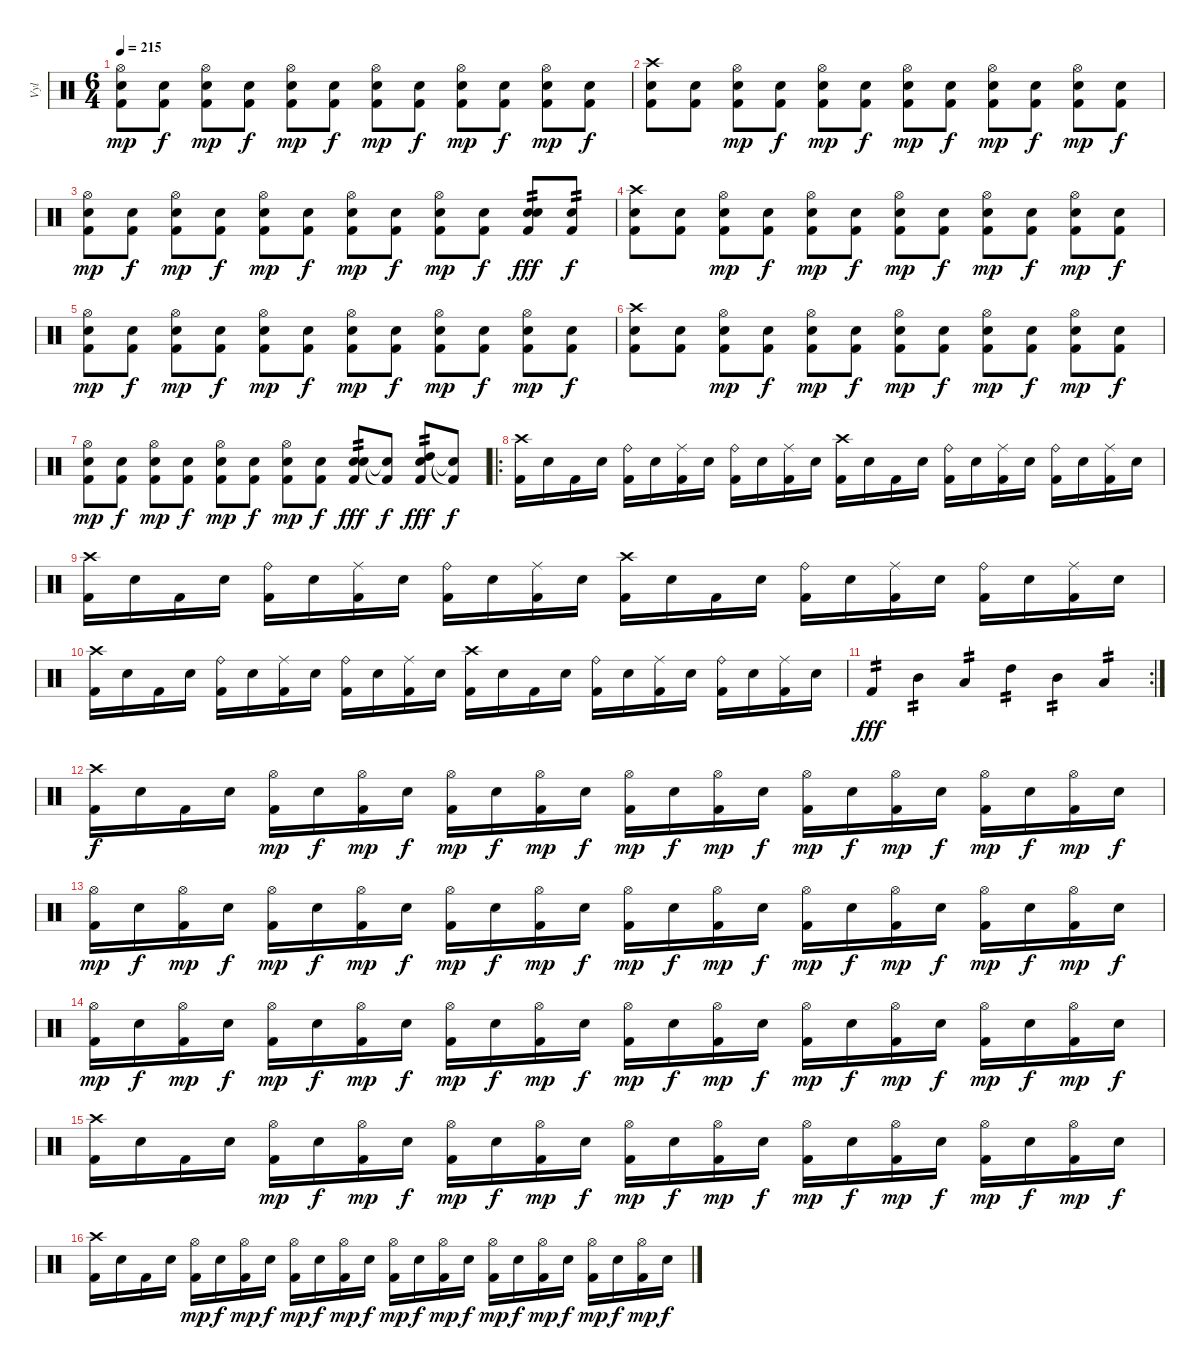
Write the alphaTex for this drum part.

\track ("Vyl" "Vyl") {instrument percussion}
\staff {score}
\articulation defaults
\ts (6 4)
\tempo 215
\clef neutral
\ks c
("Hi-Hat (open)" "Snare (hit) 2" "Kick (hit) 2").8{dy mp} ("Snare (hit) 2" "Kick (hit) 2").8{dy f} ("Hi-Hat (open)" "Snare (hit) 2" "Kick (hit) 2").8{dy mp} ("Snare (hit) 2" "Kick (hit) 2").8{dy f} ("Hi-Hat (open)" "Snare (hit) 2" "Kick (hit) 2").8{dy mp} ("Snare (hit) 2" "Kick (hit) 2").8{dy f} ("Hi-Hat (open)" "Snare (hit) 2" "Kick (hit) 2").8{dy mp} ("Snare (hit) 2" "Kick (hit) 2").8{dy f} ("Hi-Hat (open)" "Snare (hit) 2" "Kick (hit) 2").8{dy mp} ("Snare (hit) 2" "Kick (hit) 2").8{dy f} ("Hi-Hat (open)" "Snare (hit) 2" "Kick (hit) 2").8{dy mp} ("Snare (hit) 2" "Kick (hit) 2").8{dy f} |
("Crash high (hit)" "Snare (hit) 2" "Kick (hit) 2").8 ("Snare (hit) 2" "Kick (hit) 2").8 ("Hi-Hat (open)" "Snare (hit) 2" "Kick (hit) 2").8{dy mp} ("Snare (hit) 2" "Kick (hit) 2").8{dy f} ("Hi-Hat (open)" "Snare (hit) 2" "Kick (hit) 2").8{dy mp} ("Snare (hit) 2" "Kick (hit) 2").8{dy f} ("Hi-Hat (open)" "Snare (hit) 2" "Kick (hit) 2").8{dy mp} ("Snare (hit) 2" "Kick (hit) 2").8{dy f} ("Hi-Hat (open)" "Snare (hit) 2" "Kick (hit) 2").8{dy mp} ("Snare (hit) 2" "Kick (hit) 2").8{dy f} ("Hi-Hat (open)" "Snare (hit) 2" "Kick (hit) 2").8{dy mp} ("Snare (hit) 2" "Kick (hit) 2").8{dy f} |
("Hi-Hat (open)" "Snare (hit) 2" "Kick (hit) 2").8{dy mp} ("Snare (hit) 2" "Kick (hit) 2").8{dy f} ("Hi-Hat (open)" "Snare (hit) 2" "Kick (hit) 2").8{dy mp} ("Snare (hit) 2" "Kick (hit) 2").8{dy f} ("Hi-Hat (open)" "Snare (hit) 2" "Kick (hit) 2").8{dy mp} ("Snare (hit) 2" "Kick (hit) 2").8{dy f} ("Hi-Hat (open)" "Snare (hit) 2" "Kick (hit) 2").8{dy mp} ("Snare (hit) 2" "Kick (hit) 2").8{dy f} ("Hi-Hat (open)" "Snare (hit) 2" "Kick (hit) 2").8{dy mp} ("Snare (hit) 2" "Kick (hit) 2").8{dy f} ("Snare (hit)" "Snare (hit) 2" "Kick (hit) 2").8{tp 2 dy fff} ("Snare (hit)" "Kick (hit) 2").8{tp 2 dy f} |
("Crash high (hit)" "Snare (hit) 2" "Kick (hit) 2").8 ("Snare (hit) 2" "Kick (hit) 2").8 ("Hi-Hat (open)" "Snare (hit) 2" "Kick (hit) 2").8{dy mp} ("Snare (hit) 2" "Kick (hit) 2").8{dy f} ("Hi-Hat (open)" "Snare (hit) 2" "Kick (hit) 2").8{dy mp} ("Snare (hit) 2" "Kick (hit) 2").8{dy f} ("Hi-Hat (open)" "Snare (hit) 2" "Kick (hit) 2").8{dy mp} ("Snare (hit) 2" "Kick (hit) 2").8{dy f} ("Hi-Hat (open)" "Snare (hit) 2" "Kick (hit) 2").8{dy mp} ("Snare (hit) 2" "Kick (hit) 2").8{dy f} ("Hi-Hat (open)" "Snare (hit) 2" "Kick (hit) 2").8{dy mp} ("Snare (hit) 2" "Kick (hit) 2").8{dy f} |
("Hi-Hat (open)" "Snare (hit) 2" "Kick (hit) 2").8{dy mp} ("Snare (hit) 2" "Kick (hit) 2").8{dy f} ("Hi-Hat (open)" "Snare (hit) 2" "Kick (hit) 2").8{dy mp} ("Snare (hit) 2" "Kick (hit) 2").8{dy f} ("Hi-Hat (open)" "Snare (hit) 2" "Kick (hit) 2").8{dy mp} ("Snare (hit) 2" "Kick (hit) 2").8{dy f} ("Hi-Hat (open)" "Snare (hit) 2" "Kick (hit) 2").8{dy mp} ("Snare (hit) 2" "Kick (hit) 2").8{dy f} ("Hi-Hat (open)" "Snare (hit) 2" "Kick (hit) 2").8{dy mp} ("Snare (hit) 2" "Kick (hit) 2").8{dy f} ("Hi-Hat (open)" "Snare (hit) 2" "Kick (hit) 2").8{dy mp} ("Snare (hit) 2" "Kick (hit) 2").8{dy f} |
("Crash high (hit)" "Snare (hit) 2" "Kick (hit) 2").8 ("Snare (hit) 2" "Kick (hit) 2").8 ("Hi-Hat (open)" "Snare (hit) 2" "Kick (hit) 2").8{dy mp} ("Snare (hit) 2" "Kick (hit) 2").8{dy f} ("Hi-Hat (open)" "Snare (hit) 2" "Kick (hit) 2").8{dy mp} ("Snare (hit) 2" "Kick (hit) 2").8{dy f} ("Hi-Hat (open)" "Snare (hit) 2" "Kick (hit) 2").8{dy mp} ("Snare (hit) 2" "Kick (hit) 2").8{dy f} ("Hi-Hat (open)" "Snare (hit) 2" "Kick (hit) 2").8{dy mp} ("Snare (hit) 2" "Kick (hit) 2").8{dy f} ("Hi-Hat (open)" "Snare (hit) 2" "Kick (hit) 2").8{dy mp} ("Snare (hit) 2" "Kick (hit) 2").8{dy f} |
("Hi-Hat (open)" "Snare (hit) 2" "Kick (hit) 2").8{dy mp} ("Snare (hit) 2" "Kick (hit) 2").8{dy f} ("Hi-Hat (open)" "Snare (hit) 2" "Kick (hit) 2").8{dy mp} ("Snare (hit) 2" "Kick (hit) 2").8{dy f} ("Hi-Hat (open)" "Snare (hit) 2" "Kick (hit) 2").8{dy mp} ("Snare (hit) 2" "Kick (hit) 2").8{dy f} ("Hi-Hat (open)" "Snare (hit) 2" "Kick (hit) 2").8{dy mp} ("Snare (hit) 2" "Kick (hit) 2").8{dy f} ("Snare (hit)" "Snare (hit) 2" "Kick (hit) 2").8{tp 2 dy fff} ("Snare (hit) 2"{t} "Kick (hit) 2"{t}).8{dy f} ("Snare (hit)" "High Tom (hit)" "Kick (hit) 2").8{tp 2 dy fff} ("Snare (hit)"{t} "Kick (hit) 2"{t}).8{dy f} |
\ro
("Crash high (hit)" "Kick (hit) 2").16 "Snare (hit) 2".16 "Kick (hit) 2".16 "Snare (hit) 2".16 ("Ride (bell)" "Kick (hit) 2").16 "Snare (hit) 2".16 ("Ride (middle)" "Kick (hit) 2").16 "Snare (hit) 2".16 ("Ride (bell)" "Kick (hit) 2").16 "Snare (hit) 2".16 ("Ride (middle)" "Kick (hit) 2").16 "Snare (hit) 2".16 ("Crash high (hit)" "Kick (hit) 2").16 "Snare (hit) 2".16 "Kick (hit) 2".16 "Snare (hit) 2".16 ("Ride (bell)" "Kick (hit) 2").16 "Snare (hit) 2".16 ("Ride (middle)" "Kick (hit) 2").16 "Snare (hit) 2".16 ("Ride (bell)" "Kick (hit) 2").16 "Snare (hit) 2".16 ("Ride (middle)" "Kick (hit) 2").16 "Snare (hit) 2".16 |
("Crash high (hit)" "Kick (hit) 2").16 "Snare (hit) 2".16 "Kick (hit) 2".16 "Snare (hit) 2".16 ("Ride (bell)" "Kick (hit) 2").16 "Snare (hit) 2".16 ("Ride (middle)" "Kick (hit) 2").16 "Snare (hit) 2".16 ("Ride (bell)" "Kick (hit) 2").16 "Snare (hit) 2".16 ("Ride (middle)" "Kick (hit) 2").16 "Snare (hit) 2".16 ("Crash high (hit)" "Kick (hit) 2").16 "Snare (hit) 2".16 "Kick (hit) 2".16 "Snare (hit) 2".16 ("Ride (bell)" "Kick (hit) 2").16 "Snare (hit) 2".16 ("Ride (middle)" "Kick (hit) 2").16 "Snare (hit) 2".16 ("Ride (bell)" "Kick (hit) 2").16 "Snare (hit) 2".16 ("Ride (middle)" "Kick (hit) 2").16 "Snare (hit) 2".16 |
("Crash high (hit)" "Kick (hit) 2").16 "Snare (hit) 2".16 "Kick (hit) 2".16 "Snare (hit) 2".16 ("Ride (bell)" "Kick (hit) 2").16 "Snare (hit) 2".16 ("Ride (middle)" "Kick (hit) 2").16 "Snare (hit) 2".16 ("Ride (bell)" "Kick (hit) 2").16 "Snare (hit) 2".16 ("Ride (middle)" "Kick (hit) 2").16 "Snare (hit) 2".16 ("Crash high (hit)" "Kick (hit) 2").16 "Snare (hit) 2".16 "Kick (hit) 2".16 "Snare (hit) 2".16 ("Ride (bell)" "Kick (hit) 2").16 "Snare (hit) 2".16 ("Ride (middle)" "Kick (hit) 2").16 "Snare (hit) 2".16 ("Ride (bell)" "Kick (hit) 2").16 "Snare (hit) 2".16 ("Ride (middle)" "Kick (hit) 2").16 "Snare (hit) 2".16 |
\rc 2 "Kick (hit) 2".4{tp 2 dy fff} "Mid Tom (hit)".4{tp 2} "Low Tom (hit)".4{tp 2} "High Tom (hit)".4{tp 2} "Mid Tom (hit)".4{tp 2} "Low Tom (hit)".4{tp 2}
|
("Crash high (hit)" "Kick (hit) 2").16{dy f} "Snare (hit) 2".16 "Kick (hit) 2".16 "Snare (hit) 2".16 ("Hi-Hat (open)" "Kick (hit) 2").16{dy mp} "Snare (hit) 2".16{dy f} ("Hi-Hat (open)" "Kick (hit) 2").16{dy mp} "Snare (hit) 2".16{dy f} ("Hi-Hat (open)" "Kick (hit) 2").16{dy mp} "Snare (hit) 2".16{dy f} ("Hi-Hat (open)" "Kick (hit) 2").16{dy mp} "Snare (hit) 2".16{dy f} ("Hi-Hat (open)" "Kick (hit) 2").16{dy mp} "Snare (hit) 2".16{dy f} ("Hi-Hat (open)" "Kick (hit) 2").16{dy mp} "Snare (hit) 2".16{dy f} ("Hi-Hat (open)" "Kick (hit) 2").16{dy mp} "Snare (hit) 2".16{dy f} ("Hi-Hat (open)" "Kick (hit) 2").16{dy mp} "Snare (hit) 2".16{dy f} ("Hi-Hat (open)" "Kick (hit) 2").16{dy mp} "Snare (hit) 2".16{dy f} ("Hi-Hat (open)" "Kick (hit) 2").16{dy mp} "Snare (hit) 2".16{dy f} |
("Hi-Hat (open)" "Kick (hit) 2").16{dy mp} "Snare (hit) 2".16{dy f} ("Hi-Hat (open)" "Kick (hit) 2").16{dy mp} "Snare (hit) 2".16{dy f} ("Hi-Hat (open)" "Kick (hit) 2").16{dy mp} "Snare (hit) 2".16{dy f} ("Hi-Hat (open)" "Kick (hit) 2").16{dy mp} "Snare (hit) 2".16{dy f} ("Hi-Hat (open)" "Kick (hit) 2").16{dy mp} "Snare (hit) 2".16{dy f} ("Hi-Hat (open)" "Kick (hit) 2").16{dy mp} "Snare (hit) 2".16{dy f} ("Hi-Hat (open)" "Kick (hit) 2").16{dy mp} "Snare (hit) 2".16{dy f} ("Hi-Hat (open)" "Kick (hit) 2").16{dy mp} "Snare (hit) 2".16{dy f} ("Hi-Hat (open)" "Kick (hit) 2").16{dy mp} "Snare (hit) 2".16{dy f} ("Hi-Hat (open)" "Kick (hit) 2").16{dy mp} "Snare (hit) 2".16{dy f} ("Hi-Hat (open)" "Kick (hit) 2").16{dy mp} "Snare (hit) 2".16{dy f} ("Hi-Hat (open)" "Kick (hit) 2").16{dy mp} "Snare (hit) 2".16{dy f} |
("Hi-Hat (open)" "Kick (hit) 2").16{dy mp} "Snare (hit) 2".16{dy f} ("Hi-Hat (open)" "Kick (hit) 2").16{dy mp} "Snare (hit) 2".16{dy f} ("Hi-Hat (open)" "Kick (hit) 2").16{dy mp} "Snare (hit) 2".16{dy f} ("Hi-Hat (open)" "Kick (hit) 2").16{dy mp} "Snare (hit) 2".16{dy f} ("Hi-Hat (open)" "Kick (hit) 2").16{dy mp} "Snare (hit) 2".16{dy f} ("Hi-Hat (open)" "Kick (hit) 2").16{dy mp} "Snare (hit) 2".16{dy f} ("Hi-Hat (open)" "Kick (hit) 2").16{dy mp} "Snare (hit) 2".16{dy f} ("Hi-Hat (open)" "Kick (hit) 2").16{dy mp} "Snare (hit) 2".16{dy f} ("Hi-Hat (open)" "Kick (hit) 2").16{dy mp} "Snare (hit) 2".16{dy f} ("Hi-Hat (open)" "Kick (hit) 2").16{dy mp} "Snare (hit) 2".16{dy f} ("Hi-Hat (open)" "Kick (hit) 2").16{dy mp} "Snare (hit) 2".16{dy f} ("Hi-Hat (open)" "Kick (hit) 2").16{dy mp} "Snare (hit) 2".16{dy f} |
("Crash high (hit)" "Kick (hit) 2").16 "Snare (hit) 2".16 "Kick (hit) 2".16 "Snare (hit) 2".16 ("Hi-Hat (open)" "Kick (hit) 2").16{dy mp} "Snare (hit) 2".16{dy f} ("Hi-Hat (open)" "Kick (hit) 2").16{dy mp} "Snare (hit) 2".16{dy f} ("Hi-Hat (open)" "Kick (hit) 2").16{dy mp} "Snare (hit) 2".16{dy f} ("Hi-Hat (open)" "Kick (hit) 2").16{dy mp} "Snare (hit) 2".16{dy f} ("Hi-Hat (open)" "Kick (hit) 2").16{dy mp} "Snare (hit) 2".16{dy f} ("Hi-Hat (open)" "Kick (hit) 2").16{dy mp} "Snare (hit) 2".16{dy f} ("Hi-Hat (open)" "Kick (hit) 2").16{dy mp} "Snare (hit) 2".16{dy f} ("Hi-Hat (open)" "Kick (hit) 2").16{dy mp} "Snare (hit) 2".16{dy f} ("Hi-Hat (open)" "Kick (hit) 2").16{dy mp} "Snare (hit) 2".16{dy f} ("Hi-Hat (open)" "Kick (hit) 2").16{dy mp} "Snare (hit) 2".16{dy f} |
("Crash high (hit)" "Kick (hit) 2").16 "Snare (hit) 2".16 "Kick (hit) 2".16 "Snare (hit) 2".16 ("Hi-Hat (open)" "Kick (hit) 2").16{dy mp} "Snare (hit) 2".16{dy f} ("Hi-Hat (open)" "Kick (hit) 2").16{dy mp} "Snare (hit) 2".16{dy f} ("Hi-Hat (open)" "Kick (hit) 2").16{dy mp} "Snare (hit) 2".16{dy f} ("Hi-Hat (open)" "Kick (hit) 2").16{dy mp} "Snare (hit) 2".16{dy f} ("Hi-Hat (open)" "Kick (hit) 2").16{dy mp} "Snare (hit) 2".16{dy f} ("Hi-Hat (open)" "Kick (hit) 2").16{dy mp} "Snare (hit) 2".16{dy f} ("Hi-Hat (open)" "Kick (hit) 2").16{dy mp} "Snare (hit) 2".16{dy f} ("Hi-Hat (open)" "Kick (hit) 2").16{dy mp} "Snare (hit) 2".16{dy f} ("Hi-Hat (open)" "Kick (hit) 2").16{dy mp} "Snare (hit) 2".16{dy f} ("Hi-Hat (open)" "Kick (hit) 2").16{dy mp} "Snare (hit) 2".16{dy f}
